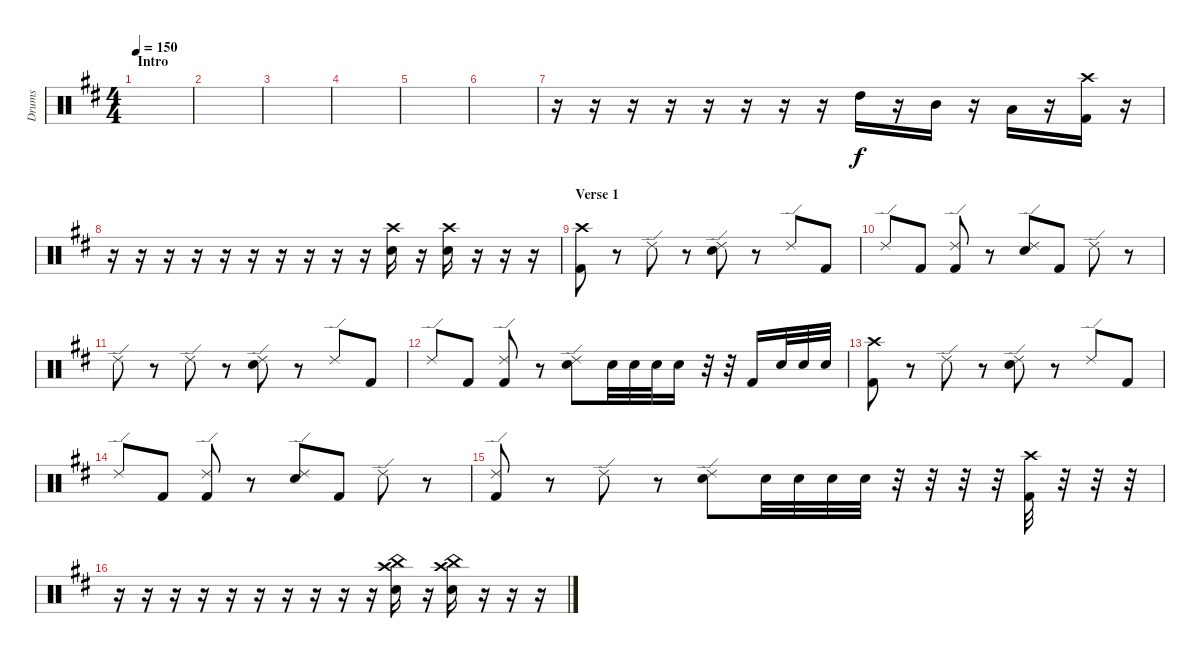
\track ("Drums" "Drums") {instrument percussion}
\staff {score}
\articulation defaults
\ts (4 4)
\section ("" "Intro")
\tempo 150
\clef neutral
\ks d
|
|
|
|
|
|
r.16 r.16 r.16 r.16 r.16 r.16 r.16 r.16 "High Tom (hit)".16 r.16 "Mid Tom (hit)".16 r.16 "Low Tom (hit)".16 r.16 ("Crash high (hit)" "Kick (hit) 2").16 r.16 |
r.16 r.16 r.16 r.16 r.16 r.16 r.16 r.16 r.16 r.16 ("Crash high (hit)" "Snare (hit) 2").16 r.16 ("Crash high (hit)" "Snare (hit) 2").16 r.16 r.16 r.16 |
\section ("" "Verse 1")
("Crash high (hit)" "Kick (hit) 2").8 r.8 "Ride (edge) 2".8 r.8 ("Ride (edge) 2" "Snare (hit) 2").8 r.8 "Ride (edge) 2".8 "Kick (hit) 2".8 |
"Ride (edge) 2".8 "Kick (hit) 2".8 ("Ride (edge) 2" "Kick (hit) 2").8 r.8 ("Ride (edge) 2" "Snare (hit) 2").8 "Kick (hit) 2".8 "Ride (edge) 2".8 r.8 |
"Ride (edge) 2".8 r.8 "Ride (edge) 2".8 r.8 ("Ride (edge) 2" "Snare (hit) 2").8 r.8 "Ride (edge) 2".8 "Kick (hit) 2".8 |
"Ride (edge) 2".8 "Kick (hit) 2".8 ("Ride (edge) 2" "Kick (hit) 2").8 r.8 ("Ride (edge) 2" "Snare (hit) 2").8 "Snare (hit)".32 "Snare (hit) 2".32 "Snare (hit) 2".32 "Snare (hit) 2".16 r.32 r.32 "Kick (hit) 2".16 "Snare (hit)".32 "Snare (hit)".32 "Snare (hit)".32 |
("Crash high (hit)" "Kick (hit) 2").8 r.8 "Ride (edge) 2".8 r.8 ("Ride (edge) 2" "Snare (hit) 2").8 r.8 "Ride (edge) 2".8 "Kick (hit) 2".8 |
"Ride (edge) 2".8 "Kick (hit) 2".8 ("Ride (edge) 2" "Kick (hit) 2").8 r.8 ("Ride (edge) 2" "Snare (hit) 2").8 "Kick (hit) 2".8 "Ride (edge) 2".8 r.8 |
("Ride (edge) 2" "Kick (hit) 2").8 r.8 "Ride (edge) 2".8 r.8 ("Ride (edge) 2" "Snare (hit) 2").8 "Snare (hit) 2".32 "Snare (hit) 2".32 "Snare (hit) 2".32 "Snare (hit) 2".32 r.32 r.32 r.32 r.32 ("Kick (hit) 2" "Crash high (hit)").32 r.32 r.32 r.32 |
r.16 r.16 r.16 r.16 r.16 r.16 r.16 r.16 r.16 r.16 ("Crash high (hit)" "China (hit)" "Snare (hit) 2").16 r.16 ("Crash high (hit)" "China (hit)" "Snare (hit) 2").16 r.16 r.16 r.16
